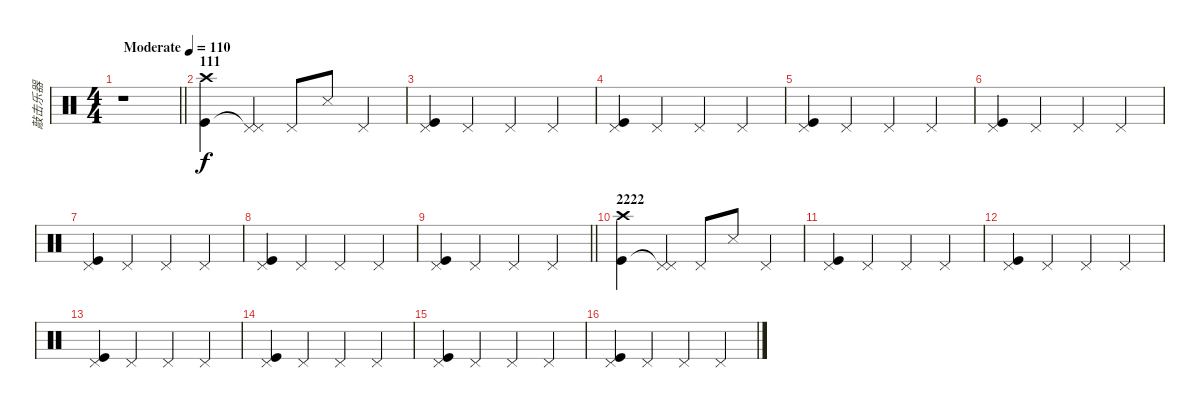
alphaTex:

\track ("敲击乐器" "敲击乐器") {instrument percussion}
\staff {score}
\articulation defaults
\ts (4 4)
\tempo (110 "Moderate")
\clef neutral
\barLineRight lightlight
\ks c
r.1{dy f} |
\section ("" "111")
("Crash high (hit)" "Kick (hit)").4 ("Pedal Hi-Hat (hit)" "Pedal Hi-Hat (hit)"{t}).4 "Pedal Hi-Hat (hit)".8 "Snare (side stick) 3".8 "Pedal Hi-Hat (hit)".4 |
("Pedal Hi-Hat (hit)" "Kick (hit)").4 "Pedal Hi-Hat (hit)".4 "Pedal Hi-Hat (hit)".4 "Pedal Hi-Hat (hit)".4 |
("Pedal Hi-Hat (hit)" "Kick (hit)").4 "Pedal Hi-Hat (hit)".4 "Pedal Hi-Hat (hit)".4 "Pedal Hi-Hat (hit)".4 |
("Pedal Hi-Hat (hit)" "Kick (hit)").4 "Pedal Hi-Hat (hit)".4 "Pedal Hi-Hat (hit)".4 "Pedal Hi-Hat (hit)".4 |
("Pedal Hi-Hat (hit)" "Kick (hit)").4 "Pedal Hi-Hat (hit)".4 "Pedal Hi-Hat (hit)".4 "Pedal Hi-Hat (hit)".4 |
("Pedal Hi-Hat (hit)" "Kick (hit)").4 "Pedal Hi-Hat (hit)".4 "Pedal Hi-Hat (hit)".4 "Pedal Hi-Hat (hit)".4 |
("Pedal Hi-Hat (hit)" "Kick (hit)").4 "Pedal Hi-Hat (hit)".4 "Pedal Hi-Hat (hit)".4 "Pedal Hi-Hat (hit)".4 |
\barLineRight lightlight
("Pedal Hi-Hat (hit)" "Kick (hit)").4 "Pedal Hi-Hat (hit)".4 "Pedal Hi-Hat (hit)".4 "Pedal Hi-Hat (hit)".4 |
\section ("" "2222")
("Crash high (hit)" "Kick (hit)").4 ("Pedal Hi-Hat (hit)" "Pedal Hi-Hat (hit)"{t}).4 "Pedal Hi-Hat (hit)".8 "Snare (side stick) 3".8 "Pedal Hi-Hat (hit)".4 |
("Pedal Hi-Hat (hit)" "Kick (hit)").4 "Pedal Hi-Hat (hit)".4 "Pedal Hi-Hat (hit)".4 "Pedal Hi-Hat (hit)".4 |
("Pedal Hi-Hat (hit)" "Kick (hit)").4 "Pedal Hi-Hat (hit)".4 "Pedal Hi-Hat (hit)".4 "Pedal Hi-Hat (hit)".4 |
("Pedal Hi-Hat (hit)" "Kick (hit)").4 "Pedal Hi-Hat (hit)".4 "Pedal Hi-Hat (hit)".4 "Pedal Hi-Hat (hit)".4 |
("Pedal Hi-Hat (hit)" "Kick (hit)").4 "Pedal Hi-Hat (hit)".4 "Pedal Hi-Hat (hit)".4 "Pedal Hi-Hat (hit)".4 |
("Pedal Hi-Hat (hit)" "Kick (hit)").4 "Pedal Hi-Hat (hit)".4 "Pedal Hi-Hat (hit)".4 "Pedal Hi-Hat (hit)".4 |
("Pedal Hi-Hat (hit)" "Kick (hit)").4 "Pedal Hi-Hat (hit)".4 "Pedal Hi-Hat (hit)".4 "Pedal Hi-Hat (hit)".4
